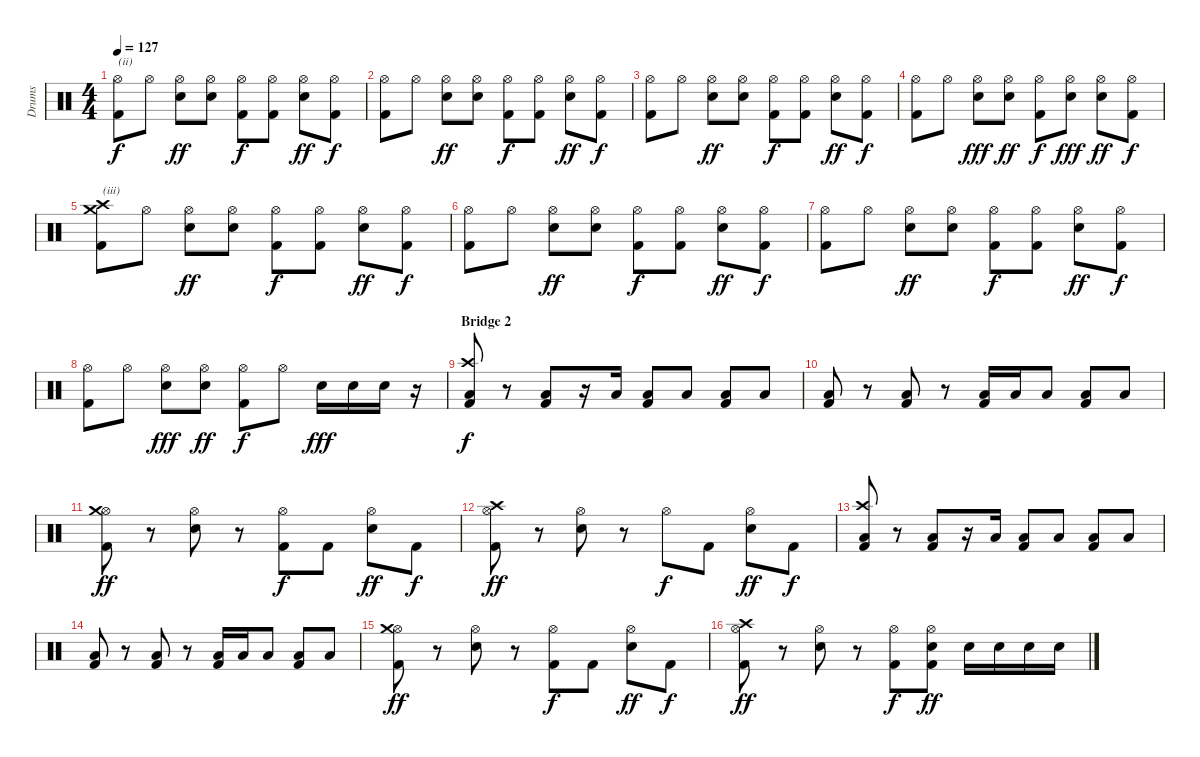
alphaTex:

\track ("Drums" "Drums") {instrument percussion}
\staff {score}
\articulation defaults
\ts (4 4)
\tempo 127
\clef neutral
\ks c
("Hi-Hat (open)" "Kick (hit) 2").8{txt "(ii)" dy f} "Hi-Hat (open)".8 ("Hi-Hat (open)" "Electric Snare (hit)").8{dy ff} ("Hi-Hat (open)" "Electric Snare (hit)").8 ("Hi-Hat (open)" "Kick (hit) 2").8{dy f} ("Hi-Hat (open)" "Kick (hit) 2").8 ("Hi-Hat (open)" "Electric Snare (hit)").8{dy ff} ("Hi-Hat (open)" "Kick (hit) 2").8{dy f} |
("Hi-Hat (open)" "Kick (hit) 2").8 "Hi-Hat (open)".8 ("Hi-Hat (open)" "Electric Snare (hit)").8{dy ff} ("Hi-Hat (open)" "Electric Snare (hit)").8 ("Hi-Hat (open)" "Kick (hit) 2").8{dy f} ("Hi-Hat (open)" "Kick (hit) 2").8 ("Hi-Hat (open)" "Electric Snare (hit)").8{dy ff} ("Hi-Hat (open)" "Kick (hit) 2").8{dy f} |
("Hi-Hat (open)" "Kick (hit) 2").8 "Hi-Hat (open)".8 ("Hi-Hat (open)" "Electric Snare (hit)").8{dy ff} ("Hi-Hat (open)" "Electric Snare (hit)").8 ("Hi-Hat (open)" "Kick (hit) 2").8{dy f} ("Hi-Hat (open)" "Kick (hit) 2").8 ("Hi-Hat (open)" "Electric Snare (hit)").8{dy ff} ("Hi-Hat (open)" "Kick (hit) 2").8{dy f} |
("Hi-Hat (open)" "Kick (hit) 2").8 "Hi-Hat (open)".8 ("Hi-Hat (open)" "Electric Snare (hit)").8{dy fff} ("Hi-Hat (open)" "Electric Snare (hit)").8{dy ff} ("Hi-Hat (open)" "Kick (hit) 2").8{dy f} ("Hi-Hat (open)" "Electric Snare (hit)").8{dy fff} ("Hi-Hat (open)" "Electric Snare (hit)").8{dy ff} ("Hi-Hat (open)" "Kick (hit) 2").8{dy f} |
("Crash medium (hit)" "Crash high (hit)" "Kick (hit) 2").8{txt "(iii)"} "Hi-Hat (open)".8 ("Hi-Hat (open)" "Electric Snare (hit)").8{dy ff} ("Hi-Hat (open)" "Electric Snare (hit)").8 ("Hi-Hat (open)" "Kick (hit) 2").8{dy f} ("Hi-Hat (open)" "Kick (hit) 2").8 ("Hi-Hat (open)" "Electric Snare (hit)").8{dy ff} ("Hi-Hat (open)" "Kick (hit) 2").8{dy f} |
("Hi-Hat (open)" "Kick (hit) 2").8 "Hi-Hat (open)".8 ("Hi-Hat (open)" "Electric Snare (hit)").8{dy ff} ("Hi-Hat (open)" "Electric Snare (hit)").8 ("Hi-Hat (open)" "Kick (hit) 2").8{dy f} ("Hi-Hat (open)" "Kick (hit) 2").8 ("Hi-Hat (open)" "Electric Snare (hit)").8{dy ff} ("Hi-Hat (open)" "Kick (hit) 2").8{dy f} |
("Hi-Hat (open)" "Kick (hit) 2").8 "Hi-Hat (open)".8 ("Hi-Hat (open)" "Electric Snare (hit)").8{dy ff} ("Hi-Hat (open)" "Electric Snare (hit)").8 ("Hi-Hat (open)" "Kick (hit) 2").8{dy f} ("Hi-Hat (open)" "Kick (hit) 2").8 ("Hi-Hat (open)" "Electric Snare (hit)").8{dy ff} ("Hi-Hat (open)" "Kick (hit) 2").8{dy f} |
("Hi-Hat (open)" "Kick (hit) 2").8 "Hi-Hat (open)".8 ("Hi-Hat (open)" "Electric Snare (hit)").8{dy fff} ("Hi-Hat (open)" "Electric Snare (hit)").8{dy ff} ("Hi-Hat (open)" "Kick (hit) 2").8{dy f} "Hi-Hat (open)".8 "Electric Snare (hit)".16{dy fff} "Electric Snare (hit)".16 "Electric Snare (hit)".16 r.16 |
\section ("" "Bridge 2")
("Crash high (hit)" "Low Floor Tom (hit)" "Kick (hit) 2").8{dy f} r.8 ("Low Tom (hit)" "Kick (hit) 2").8 r.16 "Low Tom (hit)".16 ("Low Floor Tom (hit)" "Kick (hit) 2").8 "Low Floor Tom (hit)".8 ("Low Tom (hit)" "Kick (hit) 2").8 "Low Floor Tom (hit)".8 |
("Low Floor Tom (hit)" "Kick (hit) 2").8 r.8 ("Low Tom (hit)" "Kick (hit) 2").8 r.8 ("Low Floor Tom (hit)" "Kick (hit) 2").16 "Low Floor Tom (hit)".16 "Low Floor Tom (hit)".8 ("Low Tom (hit)" "Kick (hit) 2").8 "Low Floor Tom (hit)".8 |
("Hi-Hat (open)" "Crash medium (hit)" "Kick (hit) 2").8{dy ff} r.8 ("Hi-Hat (open)" "Electric Snare (hit)").8 r.8 ("Hi-Hat (open)" "Kick (hit) 2").8{dy f} "Kick (hit) 2".8 ("Hi-Hat (open)" "Electric Snare (hit)").8{dy ff} "Kick (hit) 2".8{dy f} |
("Hi-Hat (open)" "Crash high (hit)" "Kick (hit) 2").8{dy ff} r.8 ("Hi-Hat (open)" "Electric Snare (hit)").8 r.8 "Hi-Hat (open)".8{dy f} "Kick (hit) 2".8 ("Hi-Hat (open)" "Electric Snare (hit)").8{dy ff} "Kick (hit) 2".8{dy f} |
("Crash high (hit)" "Low Floor Tom (hit)" "Kick (hit) 2").8 r.8 ("Low Tom (hit)" "Kick (hit) 2").8 r.16 "Low Tom (hit)".16 ("Low Floor Tom (hit)" "Kick (hit) 2").8 "Low Floor Tom (hit)".8 ("Low Tom (hit)" "Kick (hit) 2").8 "Low Floor Tom (hit)".8 |
("Low Floor Tom (hit)" "Kick (hit) 2").8 r.8 ("Low Tom (hit)" "Kick (hit) 2").8 r.8 ("Low Floor Tom (hit)" "Kick (hit) 2").16 "Low Floor Tom (hit)".16 "Low Floor Tom (hit)".8 ("Low Tom (hit)" "Kick (hit) 2").8 "Low Floor Tom (hit)".8 |
("Hi-Hat (open)" "Crash medium (hit)" "Kick (hit) 2").8{dy ff} r.8 ("Hi-Hat (open)" "Electric Snare (hit)").8 r.8 ("Hi-Hat (open)" "Kick (hit) 2").8{dy f} "Kick (hit) 2".8 ("Hi-Hat (open)" "Electric Snare (hit)").8{dy ff} "Kick (hit) 2".8{dy f} |
("Hi-Hat (open)" "Crash high (hit)" "Kick (hit) 2").8{dy ff} r.8 ("Hi-Hat (open)" "Electric Snare (hit)").8 r.8 ("Hi-Hat (open)" "Kick (hit) 2").8{dy f} ("Hi-Hat (open)" "Electric Snare (hit)" "Kick (hit) 2").8{dy ff} "Electric Snare (hit)".16 "Electric Snare (hit)".16 "Electric Snare (hit)".16 "Electric Snare (hit)".16
